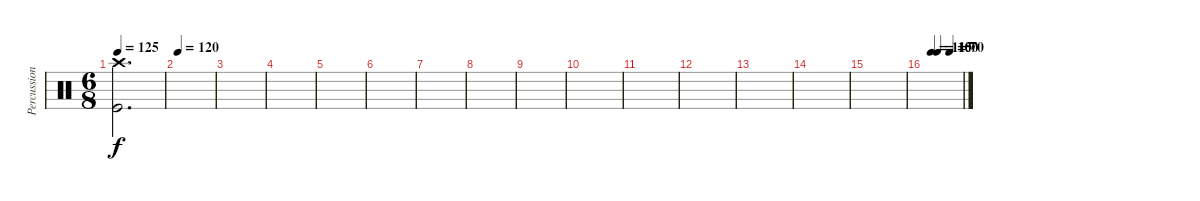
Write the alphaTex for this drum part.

\track ("Percussion" "Percussion") {instrument percussion}
\staff {score}
\articulation defaults
\ts (6 8)
\tempo 125
\clef neutral
\ks c
("Crash high (hit)" "Kick (hit)").2{d dy f} |
\tempo 120
|
|
|
|
|
|
|
|
|
|
|
|
|
|
\tempo (115 0.16666666666666666)
\tempo (100 0.3333333333333333)
\tempo (70 0.6666666666666666)
